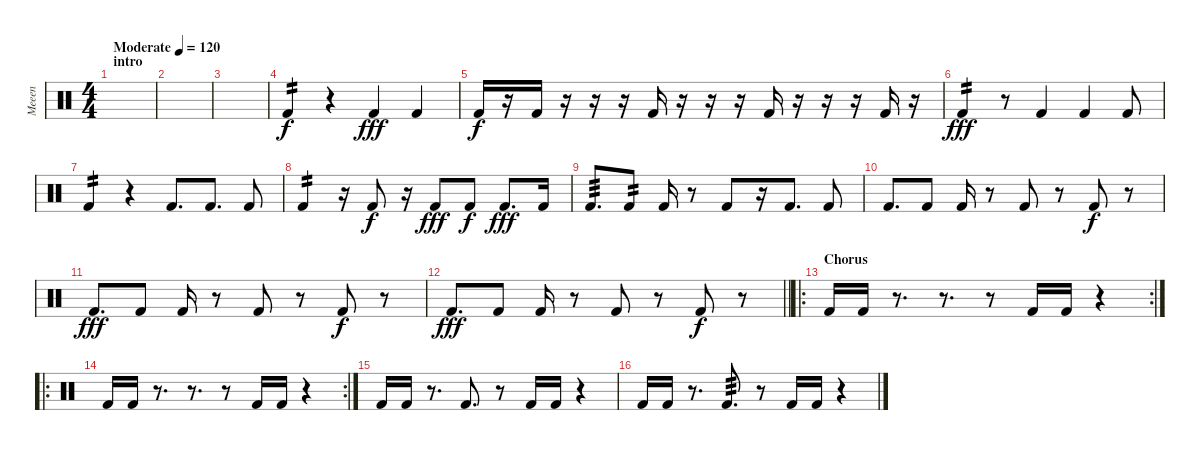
\track ("Meeen" "Meeen") {instrument percussion}
\staff {score}
\articulation defaults
\ts (4 4)
\section ("" "intro")
\tempo (120 "Moderate")
\clef neutral
\ks c
|
|
|
"Kick (hit) 2".4{tp 2} r.4 "Kick (hit) 2".4{dy fff} "Kick (hit) 2".4 |
"Kick (hit) 2".16{dy f} r.16 "Kick (hit) 2".16 r.16 r.16 r.16 "Kick (hit) 2".16 r.16 r.16 r.16 "Kick (hit) 2".16 r.16 r.16 r.16 "Kick (hit) 2".16 r.16 |
"Kick (hit) 2".4{tp 2 dy fff} r.8 "Kick (hit) 2".4 "Kick (hit) 2".4 "Kick (hit) 2".8 |
"Kick (hit) 2".4{tp 2} r.4 "Kick (hit) 2".8{d} "Kick (hit) 2".8{d} "Kick (hit) 2".8 |
"Kick (hit) 2".4{tp 2} r.16 "Kick (hit) 2".8{dy f} r.16 "Kick (hit) 2".8{dy fff} "Kick (hit) 2".8{dy f} "Kick (hit) 2".8{d dy fff} "Kick (hit) 2".16 |
"Kick (hit) 2".8{d tp 3} "Kick (hit) 2".8{tp 2} "Kick (hit) 2".16 r.8 "Kick (hit) 2".8 r.16 "Kick (hit) 2".8{d} "Kick (hit) 2".8 |
"Kick (hit) 2".8{d} "Kick (hit) 2".8 "Kick (hit) 2".16 r.8 "Kick (hit) 2".8 r.8 "Kick (hit) 2".8{dy f} r.8 |
"Kick (hit) 2".8{d dy fff} "Kick (hit) 2".8 "Kick (hit) 2".16 r.8 "Kick (hit) 2".8 r.8 "Kick (hit) 2".8{dy f} r.8 |
\barLineRight lightlight "Kick (hit) 2".8{d dy fff} "Kick (hit) 2".8 "Kick (hit) 2".16
r.8 "Kick (hit) 2".8 r.8 "Kick (hit) 2".8{dy f} r.8 |
\ro
\rc 2
\section ("" "Chorus")
"Kick (hit) 2".16 "Kick (hit) 2".16 r.8{d} r.8{d} r.8 "Kick (hit) 2".16 "Kick (hit) 2".16 r.4 |
\ro
\rc 2 "Kick (hit) 2".16 "Kick (hit) 2".16
r.8{d} r.8{d} r.8 "Kick (hit) 2".16 "Kick (hit) 2".16 r.4 |
"Kick (hit) 2".16 "Kick (hit) 2".16 r.8{d} "Kick (hit) 2".8{d} r.8 "Kick (hit) 2".16 "Kick (hit) 2".16 r.4 |
"Kick (hit) 2".16 "Kick (hit) 2".16 r.8{d} "Kick (hit) 2".8{d tp 3} r.8 "Kick (hit) 2".16 "Kick (hit) 2".16 r.4
